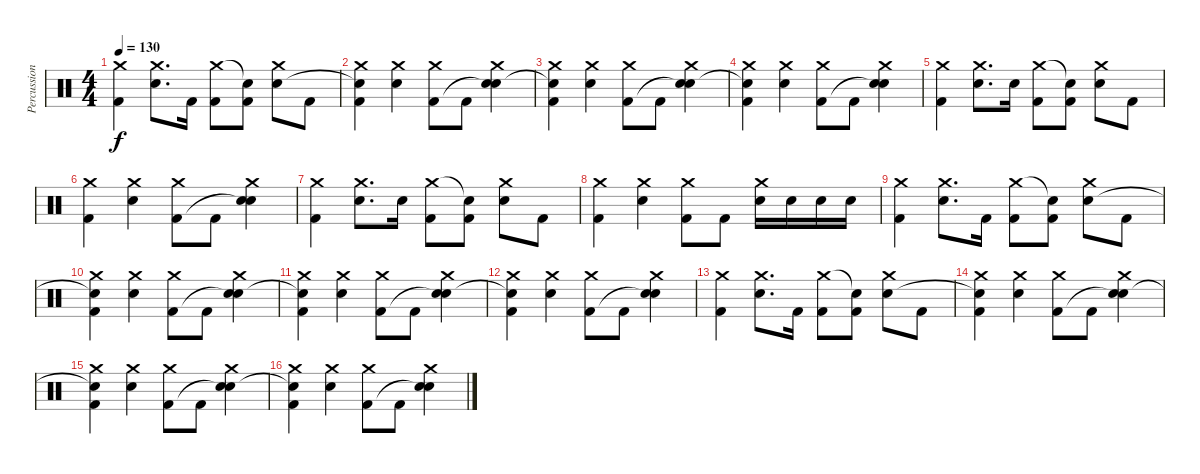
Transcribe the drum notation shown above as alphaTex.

\track ("Percussion" "Percussion") {instrument percussion}
\staff {score}
\articulation defaults
\ts (4 4)
\tempo 130
\clef neutral
\ks c
("Crash medium (hit)" "Kick (hit) 2").4{dy f} ("Crash medium (hit)" "Snare (hit) 2").8{d} "Kick (hit) 2".16 ("Crash medium (hit)" "Kick (hit) 2").8 ("Snare (hit)"{t} "Kick (hit) 2").8 ("Crash medium (hit)" "Snare (hit) 2").8 "Kick (hit) 2".8 |
("Crash medium (hit)" "Snare (hit)"{t} "Kick (hit) 2").4 ("Crash medium (hit)" "Snare (hit) 2").4 ("Crash medium (hit)" "Kick (hit) 2").8 "Kick (hit) 2".8 ("Crash medium (hit)" "Snare (hit)"{t} "Snare (hit) 2").4 |
("Crash medium (hit)" "Snare (hit)"{t} "Kick (hit) 2").4 ("Crash medium (hit)" "Snare (hit) 2").4 ("Crash medium (hit)" "Kick (hit) 2").8 "Kick (hit) 2".8 ("Crash medium (hit)" "Snare (hit)"{t} "Snare (hit) 2").4 |
("Crash medium (hit)" "Snare (hit)"{t} "Kick (hit) 2").4 ("Crash medium (hit)" "Snare (hit) 2").4 ("Crash medium (hit)" "Kick (hit) 2").8 "Kick (hit) 2".8 ("Crash medium (hit)" "Snare (hit)"{t} "Snare (hit) 2").4 |
("Crash medium (hit)" "Kick (hit) 2").4 ("Crash medium (hit)" "Snare (hit) 2").8{d} "Snare (hit) 2".16 ("Crash medium (hit)" "Kick (hit) 2").8 ("Snare (hit)"{t} "Kick (hit) 2").8 ("Crash medium (hit)" "Snare (hit) 2").8 "Kick (hit) 2".8 |
("Crash medium (hit)" "Kick (hit) 2").4 ("Crash medium (hit)" "Snare (hit) 2").4 ("Crash medium (hit)" "Kick (hit) 2").8 "Kick (hit) 2".8 ("Crash medium (hit)" "Snare (hit)"{t} "Snare (hit) 2").4 |
("Crash medium (hit)" "Kick (hit) 2").4 ("Crash medium (hit)" "Snare (hit) 2").8{d} "Snare (hit) 2".16 ("Crash medium (hit)" "Kick (hit) 2").8 ("Snare (hit)"{t} "Kick (hit) 2").8 ("Crash medium (hit)" "Snare (hit) 2").8 "Kick (hit) 2".8 |
("Crash medium (hit)" "Kick (hit) 2").4 ("Crash medium (hit)" "Snare (hit) 2").4 ("Crash medium (hit)" "Kick (hit) 2").8 "Kick (hit) 2".8 ("Crash medium (hit)" "Snare (hit) 2").16 "Snare (hit) 2".16 "Snare (hit) 2".16 "Snare (hit) 2".16 |
("Crash medium (hit)" "Kick (hit) 2").4 ("Crash medium (hit)" "Snare (hit) 2").8{d} "Kick (hit) 2".16 ("Crash medium (hit)" "Kick (hit) 2").8 ("Snare (hit)"{t} "Kick (hit) 2").8 ("Crash medium (hit)" "Snare (hit) 2").8 "Kick (hit) 2".8 |
("Crash medium (hit)" "Snare (hit)"{t} "Kick (hit) 2").4 ("Crash medium (hit)" "Snare (hit) 2").4 ("Crash medium (hit)" "Kick (hit) 2").8 "Kick (hit) 2".8 ("Crash medium (hit)" "Snare (hit)"{t} "Snare (hit) 2").4 |
("Crash medium (hit)" "Snare (hit)"{t} "Kick (hit) 2").4 ("Crash medium (hit)" "Snare (hit) 2").4 ("Crash medium (hit)" "Kick (hit) 2").8 "Kick (hit) 2".8 ("Crash medium (hit)" "Snare (hit)"{t} "Snare (hit) 2").4 |
("Crash medium (hit)" "Snare (hit)"{t} "Kick (hit) 2").4 ("Crash medium (hit)" "Snare (hit) 2").4 ("Crash medium (hit)" "Kick (hit) 2").8 "Kick (hit) 2".8 ("Crash medium (hit)" "Snare (hit)"{t} "Snare (hit) 2").4 |
("Crash medium (hit)" "Kick (hit) 2").4 ("Crash medium (hit)" "Snare (hit) 2").8{d} "Kick (hit) 2".16 ("Crash medium (hit)" "Kick (hit) 2").8 ("Snare (hit)"{t} "Kick (hit) 2").8 ("Crash medium (hit)" "Snare (hit) 2").8 "Kick (hit) 2".8 |
("Crash medium (hit)" "Snare (hit)"{t} "Kick (hit) 2").4 ("Crash medium (hit)" "Snare (hit) 2").4 ("Crash medium (hit)" "Kick (hit) 2").8 "Kick (hit) 2".8 ("Crash medium (hit)" "Snare (hit)"{t} "Snare (hit) 2").4 |
("Crash medium (hit)" "Snare (hit)"{t} "Kick (hit) 2").4 ("Crash medium (hit)" "Snare (hit) 2").4 ("Crash medium (hit)" "Kick (hit) 2").8 "Kick (hit) 2".8 ("Crash medium (hit)" "Snare (hit)"{t} "Snare (hit) 2").4 |
("Crash medium (hit)" "Snare (hit)"{t} "Kick (hit) 2").4 ("Crash medium (hit)" "Snare (hit) 2").4 ("Crash medium (hit)" "Kick (hit) 2").8 "Kick (hit) 2".8 ("Crash medium (hit)" "Snare (hit)"{t} "Snare (hit) 2").4
